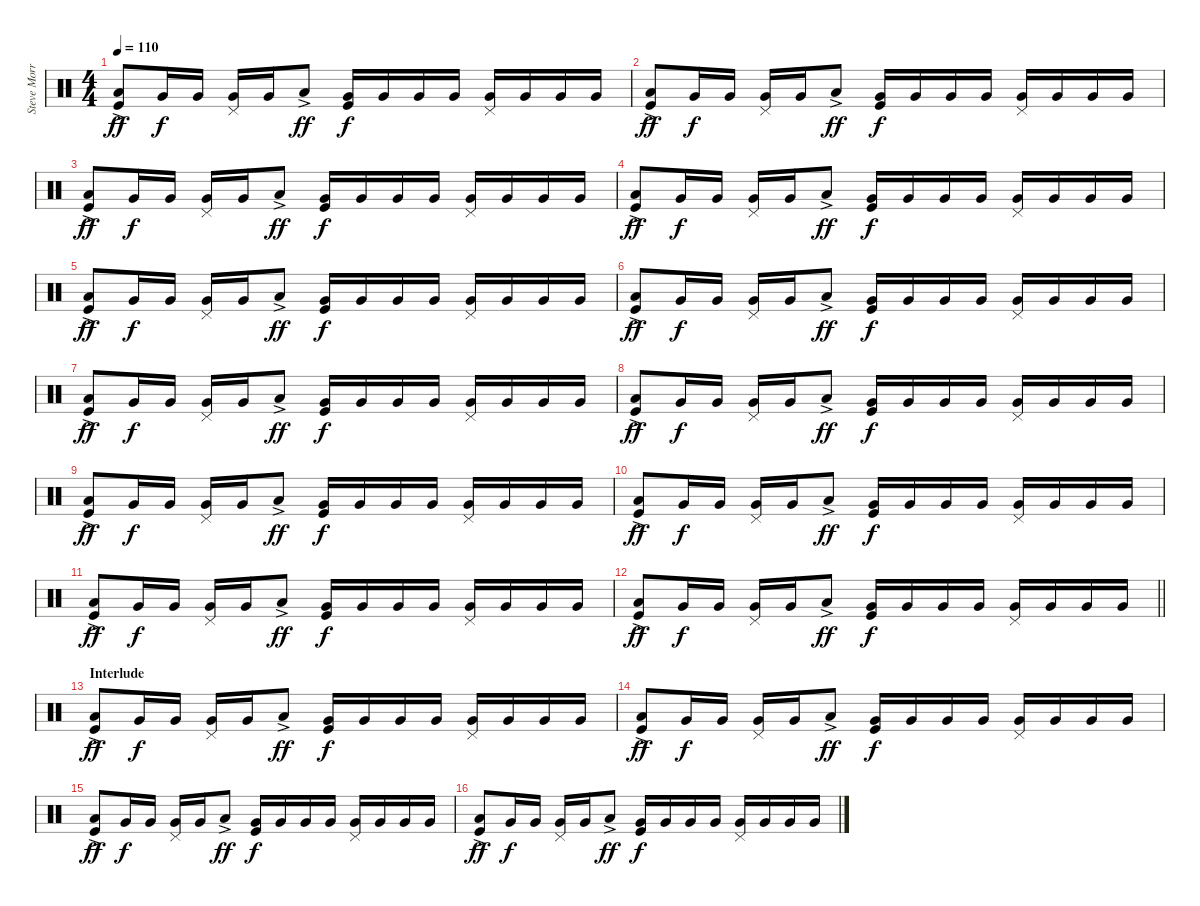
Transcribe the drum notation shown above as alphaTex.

\track ("Steve Morris Drums" "Steve Morr") {instrument percussion}
\staff {score}
\articulation defaults
\ts (4 4)
\tempo 110
\clef neutral
\ks c
("Low Tom (hit)"{ac} "Kick (hit)").8{dy ff} "Very Low Tom (hit)".16{dy f} "Very Low Tom (hit)".16 ("Pedal Hi-Hat (hit)" "Very Low Tom (hit)").16 "Very Low Tom (hit)".16 "Low Tom (hit)"{ac}.8{dy ff} ("Very Low Tom (hit)" "Kick (hit)").16{dy f} "Very Low Tom (hit)".16 "Very Low Tom (hit)".16 "Very Low Tom (hit)".16 ("Pedal Hi-Hat (hit)" "Very Low Tom (hit)").16 "Very Low Tom (hit)".16 "Very Low Tom (hit)".16 "Very Low Tom (hit)".16 |
("Low Tom (hit)"{ac} "Kick (hit)").8{dy ff} "Very Low Tom (hit)".16{dy f} "Very Low Tom (hit)".16 ("Pedal Hi-Hat (hit)" "Very Low Tom (hit)").16 "Very Low Tom (hit)".16 "Low Tom (hit)"{ac}.8{dy ff} ("Very Low Tom (hit)" "Kick (hit)").16{dy f} "Very Low Tom (hit)".16 "Very Low Tom (hit)".16 "Very Low Tom (hit)".16 ("Pedal Hi-Hat (hit)" "Very Low Tom (hit)").16 "Very Low Tom (hit)".16 "Very Low Tom (hit)".16 "Very Low Tom (hit)".16 |
("Low Tom (hit)"{ac} "Kick (hit)").8{dy ff} "Very Low Tom (hit)".16{dy f} "Very Low Tom (hit)".16 ("Pedal Hi-Hat (hit)" "Very Low Tom (hit)").16 "Very Low Tom (hit)".16 "Low Tom (hit)"{ac}.8{dy ff} ("Very Low Tom (hit)" "Kick (hit)").16{dy f} "Very Low Tom (hit)".16 "Very Low Tom (hit)".16 "Very Low Tom (hit)".16 ("Pedal Hi-Hat (hit)" "Very Low Tom (hit)").16 "Very Low Tom (hit)".16 "Very Low Tom (hit)".16 "Very Low Tom (hit)".16 |
("Low Tom (hit)"{ac} "Kick (hit)").8{dy ff} "Very Low Tom (hit)".16{dy f} "Very Low Tom (hit)".16 ("Pedal Hi-Hat (hit)" "Very Low Tom (hit)").16 "Very Low Tom (hit)".16 "Low Tom (hit)"{ac}.8{dy ff} ("Very Low Tom (hit)" "Kick (hit)").16{dy f} "Very Low Tom (hit)".16 "Very Low Tom (hit)".16 "Very Low Tom (hit)".16 ("Pedal Hi-Hat (hit)" "Very Low Tom (hit)").16 "Very Low Tom (hit)".16 "Very Low Tom (hit)".16 "Very Low Tom (hit)".16 |
("Low Tom (hit)"{ac} "Kick (hit)").8{dy ff} "Very Low Tom (hit)".16{dy f} "Very Low Tom (hit)".16 ("Pedal Hi-Hat (hit)" "Very Low Tom (hit)").16 "Very Low Tom (hit)".16 "Low Tom (hit)"{ac}.8{dy ff} ("Very Low Tom (hit)" "Kick (hit)").16{dy f} "Very Low Tom (hit)".16 "Very Low Tom (hit)".16 "Very Low Tom (hit)".16 ("Pedal Hi-Hat (hit)" "Very Low Tom (hit)").16 "Very Low Tom (hit)".16 "Very Low Tom (hit)".16 "Very Low Tom (hit)".16 |
("Low Tom (hit)"{ac} "Kick (hit)").8{dy ff} "Very Low Tom (hit)".16{dy f} "Very Low Tom (hit)".16 ("Pedal Hi-Hat (hit)" "Very Low Tom (hit)").16 "Very Low Tom (hit)".16 "Low Tom (hit)"{ac}.8{dy ff} ("Very Low Tom (hit)" "Kick (hit)").16{dy f} "Very Low Tom (hit)".16 "Very Low Tom (hit)".16 "Very Low Tom (hit)".16 ("Pedal Hi-Hat (hit)" "Very Low Tom (hit)").16 "Very Low Tom (hit)".16 "Very Low Tom (hit)".16 "Very Low Tom (hit)".16 |
("Low Tom (hit)"{ac} "Kick (hit)").8{dy ff} "Very Low Tom (hit)".16{dy f} "Very Low Tom (hit)".16 ("Pedal Hi-Hat (hit)" "Very Low Tom (hit)").16 "Very Low Tom (hit)".16 "Low Tom (hit)"{ac}.8{dy ff} ("Very Low Tom (hit)" "Kick (hit)").16{dy f} "Very Low Tom (hit)".16 "Very Low Tom (hit)".16 "Very Low Tom (hit)".16 ("Pedal Hi-Hat (hit)" "Very Low Tom (hit)").16 "Very Low Tom (hit)".16 "Very Low Tom (hit)".16 "Very Low Tom (hit)".16 |
("Low Tom (hit)"{ac} "Kick (hit)").8{dy ff} "Very Low Tom (hit)".16{dy f} "Very Low Tom (hit)".16 ("Pedal Hi-Hat (hit)" "Very Low Tom (hit)").16 "Very Low Tom (hit)".16 "Low Tom (hit)"{ac}.8{dy ff} ("Very Low Tom (hit)" "Kick (hit)").16{dy f} "Very Low Tom (hit)".16 "Very Low Tom (hit)".16 "Very Low Tom (hit)".16 ("Pedal Hi-Hat (hit)" "Very Low Tom (hit)").16 "Very Low Tom (hit)".16 "Very Low Tom (hit)".16 "Very Low Tom (hit)".16 |
("Low Tom (hit)"{ac} "Kick (hit)").8{dy ff} "Very Low Tom (hit)".16{dy f} "Very Low Tom (hit)".16 ("Pedal Hi-Hat (hit)" "Very Low Tom (hit)").16 "Very Low Tom (hit)".16 "Low Tom (hit)"{ac}.8{dy ff} ("Very Low Tom (hit)" "Kick (hit)").16{dy f} "Very Low Tom (hit)".16 "Very Low Tom (hit)".16 "Very Low Tom (hit)".16 ("Pedal Hi-Hat (hit)" "Very Low Tom (hit)").16 "Very Low Tom (hit)".16 "Very Low Tom (hit)".16 "Very Low Tom (hit)".16 |
("Low Tom (hit)"{ac} "Kick (hit)").8{dy ff} "Very Low Tom (hit)".16{dy f} "Very Low Tom (hit)".16 ("Pedal Hi-Hat (hit)" "Very Low Tom (hit)").16 "Very Low Tom (hit)".16 "Low Tom (hit)"{ac}.8{dy ff} ("Very Low Tom (hit)" "Kick (hit)").16{dy f} "Very Low Tom (hit)".16 "Very Low Tom (hit)".16 "Very Low Tom (hit)".16 ("Pedal Hi-Hat (hit)" "Very Low Tom (hit)").16 "Very Low Tom (hit)".16 "Very Low Tom (hit)".16 "Very Low Tom (hit)".16 |
("Low Tom (hit)"{ac} "Kick (hit)").8{dy ff} "Very Low Tom (hit)".16{dy f} "Very Low Tom (hit)".16 ("Pedal Hi-Hat (hit)" "Very Low Tom (hit)").16 "Very Low Tom (hit)".16 "Low Tom (hit)"{ac}.8{dy ff} ("Very Low Tom (hit)" "Kick (hit)").16{dy f} "Very Low Tom (hit)".16 "Very Low Tom (hit)".16 "Very Low Tom (hit)".16 ("Pedal Hi-Hat (hit)" "Very Low Tom (hit)").16 "Very Low Tom (hit)".16 "Very Low Tom (hit)".16 "Very Low Tom (hit)".16 |
\barLineRight lightlight
("Low Tom (hit)"{ac} "Kick (hit)").8{dy ff} "Very Low Tom (hit)".16{dy f} "Very Low Tom (hit)".16 ("Pedal Hi-Hat (hit)" "Very Low Tom (hit)").16 "Very Low Tom (hit)".16 "Low Tom (hit)"{ac}.8{dy ff} ("Very Low Tom (hit)" "Kick (hit)").16{dy f} "Very Low Tom (hit)".16 "Very Low Tom (hit)".16 "Very Low Tom (hit)".16 ("Pedal Hi-Hat (hit)" "Very Low Tom (hit)").16 "Very Low Tom (hit)".16 "Very Low Tom (hit)".16 "Very Low Tom (hit)".16 |
\section ("" "Interlude")
("Low Tom (hit)"{ac} "Kick (hit)").8{dy ff} "Very Low Tom (hit)".16{dy f} "Very Low Tom (hit)".16 ("Pedal Hi-Hat (hit)" "Very Low Tom (hit)").16 "Very Low Tom (hit)".16 "Low Tom (hit)"{ac}.8{dy ff} ("Very Low Tom (hit)" "Kick (hit)").16{dy f} "Very Low Tom (hit)".16 "Very Low Tom (hit)".16 "Very Low Tom (hit)".16 ("Pedal Hi-Hat (hit)" "Very Low Tom (hit)").16 "Very Low Tom (hit)".16 "Very Low Tom (hit)".16 "Very Low Tom (hit)".16 |
("Low Tom (hit)"{ac} "Kick (hit)").8{dy ff} "Very Low Tom (hit)".16{dy f} "Very Low Tom (hit)".16 ("Pedal Hi-Hat (hit)" "Very Low Tom (hit)").16 "Very Low Tom (hit)".16 "Low Tom (hit)"{ac}.8{dy ff} ("Very Low Tom (hit)" "Kick (hit)").16{dy f} "Very Low Tom (hit)".16 "Very Low Tom (hit)".16 "Very Low Tom (hit)".16 ("Pedal Hi-Hat (hit)" "Very Low Tom (hit)").16 "Very Low Tom (hit)".16 "Very Low Tom (hit)".16 "Very Low Tom (hit)".16 |
("Low Tom (hit)"{ac} "Kick (hit)").8{dy ff} "Very Low Tom (hit)".16{dy f} "Very Low Tom (hit)".16 ("Pedal Hi-Hat (hit)" "Very Low Tom (hit)").16 "Very Low Tom (hit)".16 "Low Tom (hit)"{ac}.8{dy ff} ("Very Low Tom (hit)" "Kick (hit)").16{dy f} "Very Low Tom (hit)".16 "Very Low Tom (hit)".16 "Very Low Tom (hit)".16 ("Pedal Hi-Hat (hit)" "Very Low Tom (hit)").16 "Very Low Tom (hit)".16 "Very Low Tom (hit)".16 "Very Low Tom (hit)".16 |
("Low Tom (hit)"{ac} "Kick (hit)").8{dy ff} "Very Low Tom (hit)".16{dy f} "Very Low Tom (hit)".16 ("Pedal Hi-Hat (hit)" "Very Low Tom (hit)").16 "Very Low Tom (hit)".16 "Low Tom (hit)"{ac}.8{dy ff} ("Very Low Tom (hit)" "Kick (hit)").16{dy f} "Very Low Tom (hit)".16 "Very Low Tom (hit)".16 "Very Low Tom (hit)".16 ("Pedal Hi-Hat (hit)" "Very Low Tom (hit)").16 "Very Low Tom (hit)".16 "Very Low Tom (hit)".16 "Very Low Tom (hit)".16
